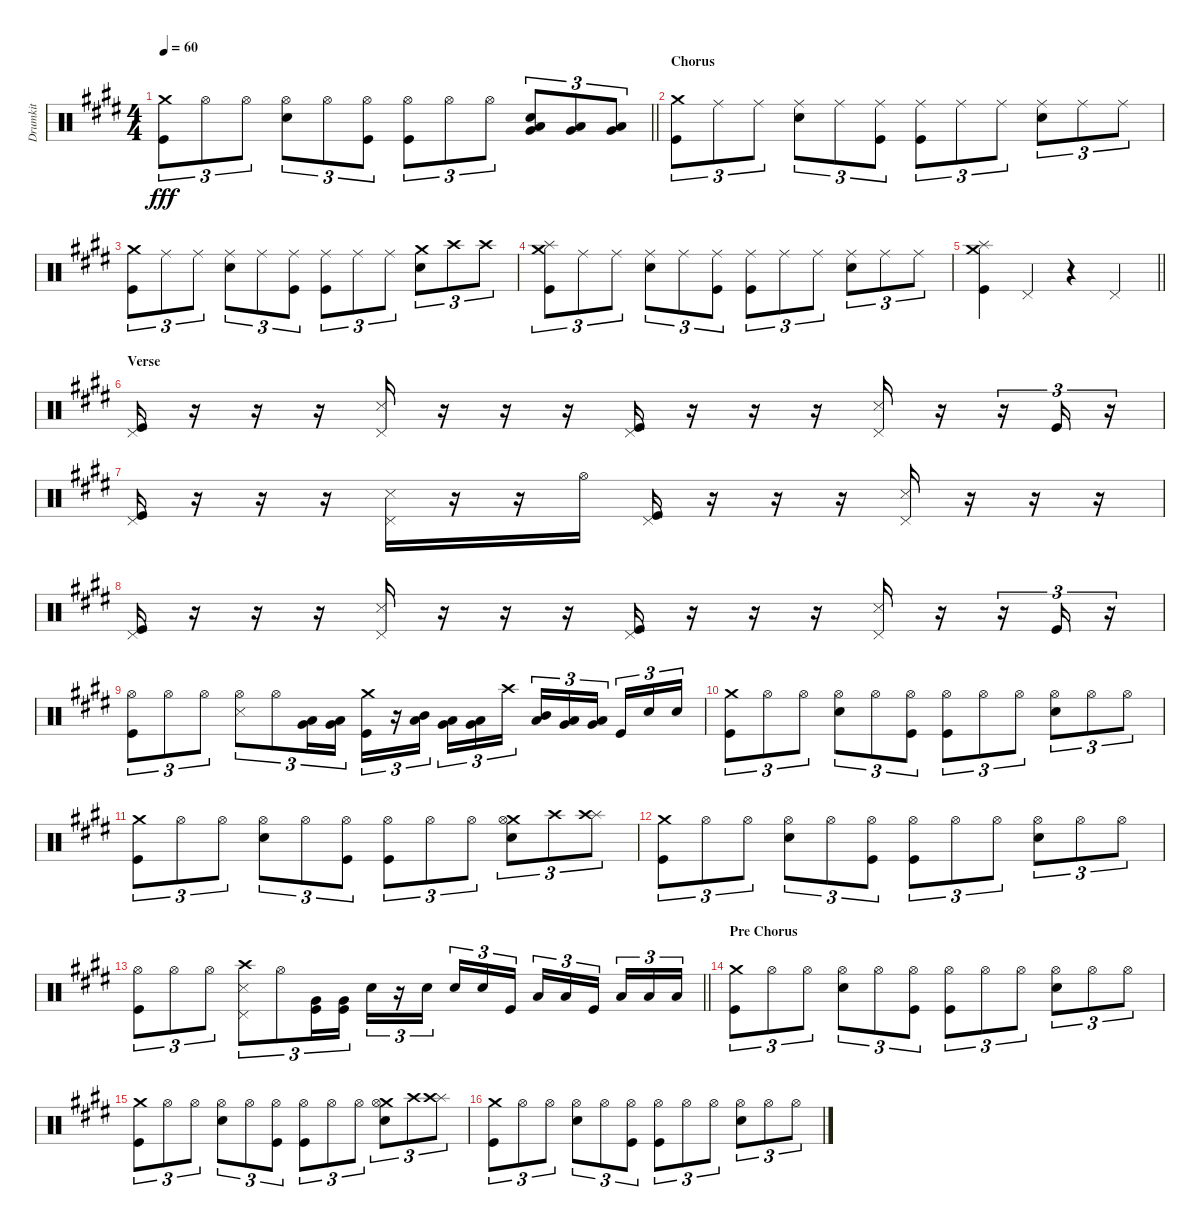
\track ("Drumkit" "Drumkit") {instrument percussion}
\staff {score}
\articulation defaults
\ts (4 4)
\tempo 60
\clef neutral
\barLineRight lightlight
\ks e
("Crash medium (hit)" "Kick (hit)").8{tu (3 2) dy fff} "Hi-Hat (open)".8{tu (3 2)} "Hi-Hat (open)".8{tu (3 2)} ("Hi-Hat (open)" "Snare (hit) 2").8{tu (3 2)} "Hi-Hat (open)".8{tu (3 2)} ("Hi-Hat (open)" "Kick (hit)").8{tu (3 2)} ("Hi-Hat (open)" "Kick (hit)").8{tu (3 2)} "Hi-Hat (open)".8{tu (3 2)} "Hi-Hat (open)".8{tu (3 2)} ("Low Floor Tom (hit)" "Very Low Tom (hit)" "Snare (hit) 2").8{tu (3 2)} ("Low Floor Tom (hit)" "Very Low Tom (hit)").8{tu (3 2)} ("Low Floor Tom (hit)" "Very Low Tom (hit)").8{tu (3 2)} |
\section ("" "Chorus")
("Crash medium (hit)" "Kick (hit)").8{tu (3 2)} "Ride (middle)".8{tu (3 2)} "Ride (middle)".8{tu (3 2)} ("Ride (middle)" "Snare (hit) 2").8{tu (3 2)} "Ride (middle)".8{tu (3 2)} ("Ride (middle)" "Kick (hit)").8{tu (3 2)} ("Ride (middle)" "Kick (hit)").8{tu (3 2)} "Ride (middle)".8{tu (3 2)} "Ride (middle)".8{tu (3 2)} ("Ride (middle)" "Snare (hit) 2").8{tu (3 2)} "Ride (middle)".8{tu (3 2)} "Ride (middle)".8{tu (3 2)} |
("Crash medium (hit)" "Kick (hit)").8{tu (3 2)} "Ride (middle)".8{tu (3 2)} "Ride (middle)".8{tu (3 2)} ("Ride (middle)" "Snare (hit) 2").8{tu (3 2)} "Ride (middle)".8{tu (3 2)} ("Ride (middle)" "Kick (hit)").8{tu (3 2)} ("Ride (middle)" "Kick (hit)").8{tu (3 2)} "Ride (middle)".8{tu (3 2)} "Ride (middle)".8{tu (3 2)} ("Crash medium (hit)" "Snare (hit) 2").8{tu (3 2)} "Crash high (hit)".8{tu (3 2)} "Crash high (hit)".8{tu (3 2)} |
("Crash medium (hit)" "Splash (hit)" "Kick (hit)").8{tu (3 2)} "Ride (middle)".8{tu (3 2)} "Ride (middle)".8{tu (3 2)} ("Ride (middle)" "Snare (hit) 2").8{tu (3 2)} "Ride (middle)".8{tu (3 2)} ("Ride (middle)" "Kick (hit)").8{tu (3 2)} ("Ride (middle)" "Kick (hit)").8{tu (3 2)} "Ride (middle)".8{tu (3 2)} "Ride (middle)".8{tu (3 2)} ("Ride (middle)" "Snare (hit) 2").8{tu (3 2)} "Ride (middle)".8{tu (3 2)} "Ride (middle)".8{tu (3 2)} |
\barLineRight lightlight
("Crash medium (hit)" "Splash (hit)" "Kick (hit)").4 "Pedal Hi-Hat (hit)".4 r.4 "Pedal Hi-Hat (hit)".4 |
\section ("" "Verse")
("Pedal Hi-Hat (hit)" "Kick (hit)").16 r.16 r.16 r.16 ("Pedal Hi-Hat (hit)" "Snare (side stick) 3").16 r.16 r.16 r.16 ("Pedal Hi-Hat (hit)" "Kick (hit)").16 r.16 r.16 r.16 ("Pedal Hi-Hat (hit)" "Snare (side stick) 3").16 r.16 r.16{tu (3 2)} "Kick (hit)".16{tu (3 2)} r.16{tu (3 2)} |
("Pedal Hi-Hat (hit)" "Kick (hit)").16 r.16 r.16 r.16 ("Pedal Hi-Hat (hit)" "Snare (side stick) 3").16 r.16 r.16 "Hi-Hat (open)".16 ("Pedal Hi-Hat (hit)" "Kick (hit)").16 r.16 r.16 r.16 ("Pedal Hi-Hat (hit)" "Snare (side stick) 3").16 r.16 r.16 r.16 |
("Pedal Hi-Hat (hit)" "Kick (hit)").16 r.16 r.16 r.16 ("Pedal Hi-Hat (hit)" "Snare (side stick) 3").16 r.16 r.16 r.16 ("Pedal Hi-Hat (hit)" "Kick (hit)").16 r.16 r.16 r.16 ("Pedal Hi-Hat (hit)" "Snare (side stick) 3").16 r.16 r.16{tu (3 2)} "Kick (hit)".16{tu (3 2)} r.16{tu (3 2)} |
("Hi-Hat (open)" "Kick (hit)").8{tu (3 2)} "Hi-Hat (open)".8{tu (3 2)} "Hi-Hat (open)".8{tu (3 2)} ("Hi-Hat (open)" "Snare (side stick) 3").8{tu (3 2)} "Hi-Hat (open)".8{tu (3 2)} ("Very Low Tom (hit)" "Low Floor Tom (hit)").16{tu (3 2)} ("Very Low Tom (hit)" "Low Floor Tom (hit)").16{tu (3 2)} ("Crash medium (hit)" "Kick (hit)").16{tu (3 2)} r.16{tu (3 2)} ("Mid Tom (hit)" "Low Tom (hit)").16{tu (3 2)} ("Very Low Tom (hit)" "Low Floor Tom (hit)").16{tu (3 2)} ("Very Low Tom (hit)" "Low Floor Tom (hit)").16{tu (3 2)} "Crash high (hit)".16{tu (3 2)} ("Mid Tom (hit)" "Low Tom (hit)").16{tu (3 2)} ("Very Low Tom (hit)" "Low Floor Tom (hit)").16{tu (3 2)} ("Very Low Tom (hit)" "Low Floor Tom (hit)").16{tu (3 2)} "Kick (hit)".16{tu (3 2)} "Snare (hit) 2".16{tu (3 2)} "Snare (hit) 2".16{tu (3 2)} |
("Crash medium (hit)" "Kick (hit)").8{tu (3 2)} "Hi-Hat (open)".8{tu (3 2)} "Hi-Hat (open)".8{tu (3 2)} ("Hi-Hat (open)" "Snare (hit) 2").8{tu (3 2)} "Hi-Hat (open)".8{tu (3 2)} ("Hi-Hat (open)" "Kick (hit)").8{tu (3 2)} ("Hi-Hat (open)" "Kick (hit)").8{tu (3 2)} "Hi-Hat (open)".8{tu (3 2)} "Hi-Hat (open)".8{tu (3 2)} ("Hi-Hat (open)" "Snare (hit) 2").8{tu (3 2)} "Hi-Hat (open)".8{tu (3 2)} "Hi-Hat (open)".8{tu (3 2)} |
("Crash medium (hit)" "Kick (hit)").8{tu (3 2)} "Hi-Hat (open)".8{tu (3 2)} "Hi-Hat (open)".8{tu (3 2)} ("Hi-Hat (open)" "Snare (hit) 2").8{tu (3 2)} "Hi-Hat (open)".8{tu (3 2)} ("Hi-Hat (open)" "Kick (hit)").8{tu (3 2)} ("Hi-Hat (open)" "Kick (hit)").8{tu (3 2)} "Hi-Hat (open)".8{tu (3 2)} "Hi-Hat (open)".8{tu (3 2)} ("Crash medium (hit)" "Hi-Hat (open)" "Snare (hit) 2").8{tu (3 2)} "Crash high (hit)".8{tu (3 2)} ("Splash (hit)" "Crash high (hit)").8{tu (3 2)} |
("Crash medium (hit)" "Kick (hit)").8{tu (3 2)} "Hi-Hat (open)".8{tu (3 2)} "Hi-Hat (open)".8{tu (3 2)} ("Hi-Hat (open)" "Snare (hit) 2").8{tu (3 2)} "Hi-Hat (open)".8{tu (3 2)} ("Hi-Hat (open)" "Kick (hit)").8{tu (3 2)} ("Hi-Hat (open)" "Kick (hit)").8{tu (3 2)} "Hi-Hat (open)".8{tu (3 2)} "Hi-Hat (open)".8{tu (3 2)} ("Hi-Hat (open)" "Snare (hit) 2").8{tu (3 2)} "Hi-Hat (open)".8{tu (3 2)} "Hi-Hat (open)".8{tu (3 2)} |
\barLineRight lightlight
("Hi-Hat (open)" "Kick (hit)").8{tu (3 2)} "Hi-Hat (open)".8{tu (3 2)} "Hi-Hat (open)".8{tu (3 2)} ("Crash high (hit)" "Pedal Hi-Hat (hit)" "Snare (side stick) 3").8{tu (3 2)} "Hi-Hat (open)".8{tu (3 2)} ("Very Low Tom (hit)" "Kick (hit)").16{tu (3 2)} ("Very Low Tom (hit)" "Kick (hit)").16{tu (3 2)} "Snare (hit) 2".16{tu (3 2)} r.16{tu (3 2)} "Snare (hit) 2".16{tu (3 2)} "Snare (hit) 2".16{tu (3 2)} "Snare (hit) 2".16{tu (3 2)} "Kick (hit)".16{tu (3 2)} "Low Tom (hit)".16{tu (3 2)} "Low Tom (hit)".16{tu (3 2)} "Kick (hit)".16{tu (3 2)} "Low Floor Tom (hit)".16{tu (3 2)} "Low Floor Tom (hit)".16{tu (3 2)} "Low Floor Tom (hit)".16{tu (3 2)} |
\section ("" "Pre Chorus")
("Crash medium (hit)" "Kick (hit)").8{tu (3 2)} "Hi-Hat (open)".8{tu (3 2)} "Hi-Hat (open)".8{tu (3 2)} ("Hi-Hat (open)" "Snare (hit) 2").8{tu (3 2)} "Hi-Hat (open)".8{tu (3 2)} ("Hi-Hat (open)" "Kick (hit)").8{tu (3 2)} ("Hi-Hat (open)" "Kick (hit)").8{tu (3 2)} "Hi-Hat (open)".8{tu (3 2)} "Hi-Hat (open)".8{tu (3 2)} ("Hi-Hat (open)" "Snare (hit) 2").8{tu (3 2)} "Hi-Hat (open)".8{tu (3 2)} "Hi-Hat (open)".8{tu (3 2)} |
("Crash medium (hit)" "Kick (hit)").8{tu (3 2)} "Hi-Hat (open)".8{tu (3 2)} "Hi-Hat (open)".8{tu (3 2)} ("Hi-Hat (open)" "Snare (hit) 2").8{tu (3 2)} "Hi-Hat (open)".8{tu (3 2)} ("Hi-Hat (open)" "Kick (hit)").8{tu (3 2)} ("Hi-Hat (open)" "Kick (hit)").8{tu (3 2)} "Hi-Hat (open)".8{tu (3 2)} "Hi-Hat (open)".8{tu (3 2)} ("Crash medium (hit)" "Hi-Hat (open)" "Snare (hit) 2").8{tu (3 2)} "Crash high (hit)".8{tu (3 2)} ("Splash (hit)" "Crash high (hit)").8{tu (3 2)} |
("Crash medium (hit)" "Kick (hit)").8{tu (3 2)} "Hi-Hat (open)".8{tu (3 2)} "Hi-Hat (open)".8{tu (3 2)} ("Hi-Hat (open)" "Snare (hit) 2").8{tu (3 2)} "Hi-Hat (open)".8{tu (3 2)} ("Hi-Hat (open)" "Kick (hit)").8{tu (3 2)} ("Hi-Hat (open)" "Kick (hit)").8{tu (3 2)} "Hi-Hat (open)".8{tu (3 2)} "Hi-Hat (open)".8{tu (3 2)} ("Hi-Hat (open)" "Snare (hit) 2").8{tu (3 2)} "Hi-Hat (open)".8{tu (3 2)} "Hi-Hat (open)".8{tu (3 2)}
